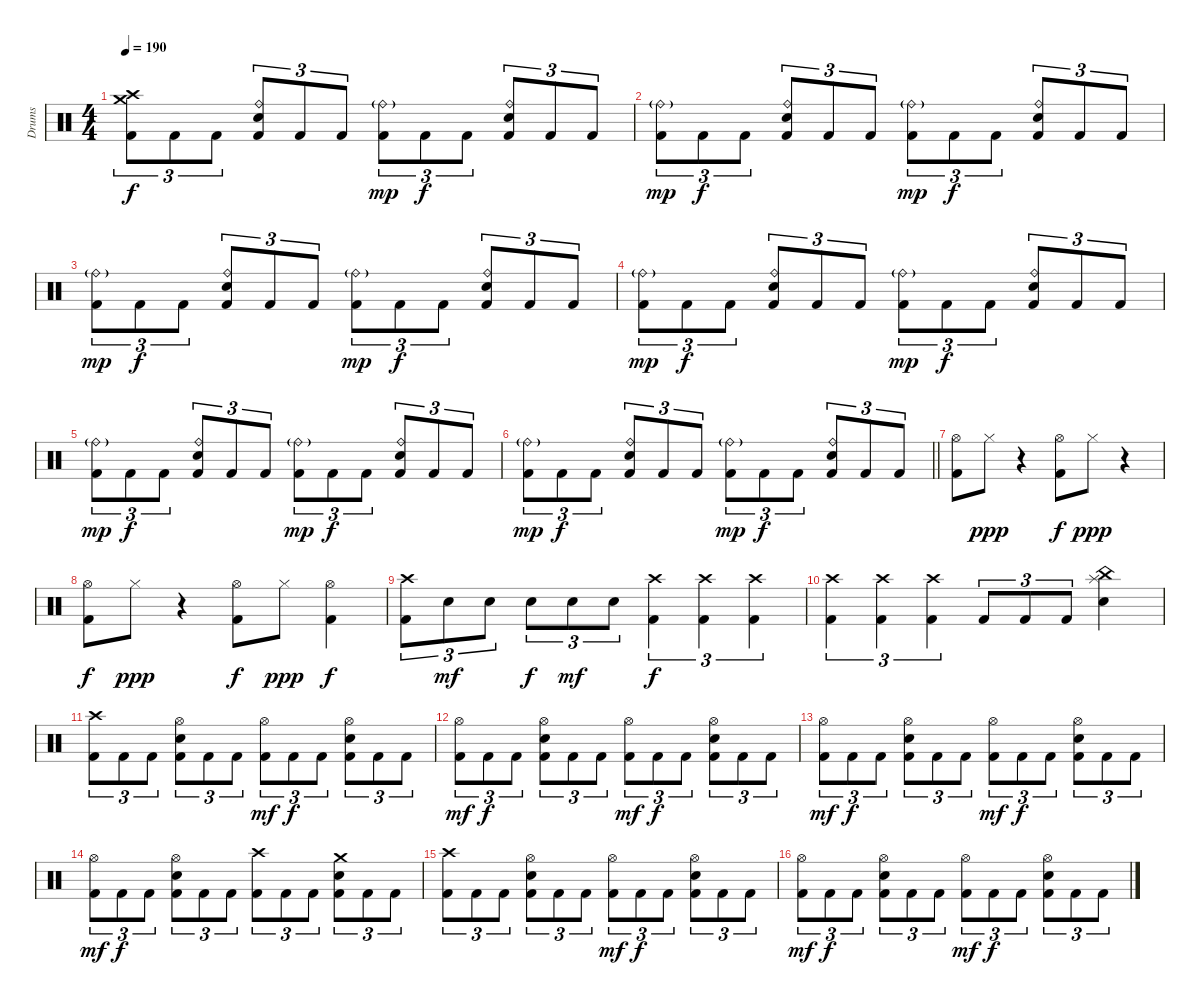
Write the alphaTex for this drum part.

\track ("Drums" "Drums") {instrument percussion}
\staff {score}
\articulation defaults
\ts (4 4)
\tempo 190
\clef neutral
\ks c
("Crash high (hit)" "Crash medium (hit)" "Kick (hit) 2").8{tu (3 2) dy f} "Kick (hit) 2".8{tu (3 2)} "Kick (hit) 2".8{tu (3 2)} ("Ride (bell)" "Electric Snare (hit)" "Kick (hit) 2").8{tu (3 2)} "Kick (hit) 2".8{tu (3 2)} "Kick (hit) 2".8{tu (3 2)} ("Ride (bell)"{g} "Kick (hit) 2").8{tu (3 2) dy mp} "Kick (hit) 2".8{tu (3 2) dy f} "Kick (hit) 2".8{tu (3 2)} ("Ride (bell)" "Electric Snare (hit)" "Kick (hit) 2").8{tu (3 2)} "Kick (hit) 2".8{tu (3 2)} "Kick (hit) 2".8{tu (3 2)} |
("Ride (bell)"{g} "Kick (hit) 2").8{tu (3 2) dy mp} "Kick (hit) 2".8{tu (3 2) dy f} "Kick (hit) 2".8{tu (3 2)} ("Ride (bell)" "Electric Snare (hit)" "Kick (hit) 2").8{tu (3 2)} "Kick (hit) 2".8{tu (3 2)} "Kick (hit) 2".8{tu (3 2)} ("Ride (bell)"{g} "Kick (hit) 2").8{tu (3 2) dy mp} "Kick (hit) 2".8{tu (3 2) dy f} "Kick (hit) 2".8{tu (3 2)} ("Ride (bell)" "Electric Snare (hit)" "Kick (hit) 2").8{tu (3 2)} "Kick (hit) 2".8{tu (3 2)} "Kick (hit) 2".8{tu (3 2)} |
("Ride (bell)"{g} "Kick (hit) 2").8{tu (3 2) dy mp} "Kick (hit) 2".8{tu (3 2) dy f} "Kick (hit) 2".8{tu (3 2)} ("Ride (bell)" "Electric Snare (hit)" "Kick (hit) 2").8{tu (3 2)} "Kick (hit) 2".8{tu (3 2)} "Kick (hit) 2".8{tu (3 2)} ("Ride (bell)"{g} "Kick (hit) 2").8{tu (3 2) dy mp} "Kick (hit) 2".8{tu (3 2) dy f} "Kick (hit) 2".8{tu (3 2)} ("Ride (bell)" "Electric Snare (hit)" "Kick (hit) 2").8{tu (3 2)} "Kick (hit) 2".8{tu (3 2)} "Kick (hit) 2".8{tu (3 2)} |
("Ride (bell)"{g} "Kick (hit) 2").8{tu (3 2) dy mp} "Kick (hit) 2".8{tu (3 2) dy f} "Kick (hit) 2".8{tu (3 2)} ("Ride (bell)" "Electric Snare (hit)" "Kick (hit) 2").8{tu (3 2)} "Kick (hit) 2".8{tu (3 2)} "Kick (hit) 2".8{tu (3 2)} ("Ride (bell)"{g} "Kick (hit) 2").8{tu (3 2) dy mp} "Kick (hit) 2".8{tu (3 2) dy f} "Kick (hit) 2".8{tu (3 2)} ("Ride (bell)" "Electric Snare (hit)" "Kick (hit) 2").8{tu (3 2)} "Kick (hit) 2".8{tu (3 2)} "Kick (hit) 2".8{tu (3 2)} |
("Ride (bell)"{g} "Kick (hit) 2").8{tu (3 2) dy mp} "Kick (hit) 2".8{tu (3 2) dy f} "Kick (hit) 2".8{tu (3 2)} ("Ride (bell)" "Electric Snare (hit)" "Kick (hit) 2").8{tu (3 2)} "Kick (hit) 2".8{tu (3 2)} "Kick (hit) 2".8{tu (3 2)} ("Ride (bell)"{g} "Kick (hit) 2").8{tu (3 2) dy mp} "Kick (hit) 2".8{tu (3 2) dy f} "Kick (hit) 2".8{tu (3 2)} ("Ride (bell)" "Electric Snare (hit)" "Kick (hit) 2").8{tu (3 2)} "Kick (hit) 2".8{tu (3 2)} "Kick (hit) 2".8{tu (3 2)} |
\barLineRight lightlight
("Ride (bell)"{g} "Kick (hit) 2").8{tu (3 2) dy mp} "Kick (hit) 2".8{tu (3 2) dy f} "Kick (hit) 2".8{tu (3 2)} ("Ride (bell)" "Electric Snare (hit)" "Kick (hit) 2").8{tu (3 2)} "Kick (hit) 2".8{tu (3 2)} "Kick (hit) 2".8{tu (3 2)} ("Ride (bell)"{g} "Kick (hit) 2").8{tu (3 2) dy mp} "Kick (hit) 2".8{tu (3 2) dy f} "Kick (hit) 2".8{tu (3 2)} ("Ride (bell)" "Electric Snare (hit)" "Kick (hit) 2").8{tu (3 2)} "Kick (hit) 2".8{tu (3 2)} "Kick (hit) 2".8{tu (3 2)} |
("Hi-Hat (open)" "Kick (hit) 2").8 "Hi-Hat (closed)".8{dy ppp} r.4 ("Hi-Hat (open)" "Kick (hit) 2").8{dy f} "Hi-Hat (closed)".8{dy ppp} r.4 |
("Hi-Hat (open)" "Kick (hit) 2").8{dy f} "Hi-Hat (closed)".8{dy ppp} r.4 ("Hi-Hat (open)" "Kick (hit) 2").8{dy f} "Hi-Hat (closed)".8{dy ppp} ("Hi-Hat (open)" "Kick (hit) 2").4{dy f} |
("Crash high (hit)" "Kick (hit) 2").8{tu (3 2)} "Electric Snare (hit)".8{tu (3 2) dy mf} "Electric Snare (hit)".8{tu (3 2)} "Electric Snare (hit)".8{tu (3 2) dy f} "Electric Snare (hit)".8{tu (3 2) dy mf} "Electric Snare (hit)".8{tu (3 2)} ("Crash high (hit)" "Kick (hit) 2").4{tu (3 2) dy f} ("Crash high (hit)" "Kick (hit) 2").4{tu (3 2)} ("Crash high (hit)" "Kick (hit) 2").4{tu (3 2)} |
("Crash high (hit)" "Kick (hit) 2").4{tu (3 2)} ("Crash high (hit)" "Kick (hit) 2").4{tu (3 2)} ("Crash high (hit)" "Kick (hit) 2").4{tu (3 2)} "Kick (hit) 2".8{tu (3 2)} "Kick (hit) 2".8{tu (3 2)} "Kick (hit) 2".8{tu (3 2)} ("China (hit)" "Splash (hit)" "Electric Snare (hit)").4 |
("Crash high (hit)" "Kick (hit) 2").8{tu (3 2)} "Kick (hit) 2".8{tu (3 2)} "Kick (hit) 2".8{tu (3 2)} ("Hi-Hat (open)" "Electric Snare (hit)" "Kick (hit) 2").8{tu (3 2)} "Kick (hit) 2".8{tu (3 2)} "Kick (hit) 2".8{tu (3 2)} ("Hi-Hat (open)" "Kick (hit) 2").8{tu (3 2) dy mf} "Kick (hit) 2".8{tu (3 2) dy f} "Kick (hit) 2".8{tu (3 2)} ("Hi-Hat (open)" "Electric Snare (hit)" "Kick (hit) 2").8{tu (3 2)} "Kick (hit) 2".8{tu (3 2)} "Kick (hit) 2".8{tu (3 2)} |
("Hi-Hat (open)" "Kick (hit) 2").8{tu (3 2) dy mf} "Kick (hit) 2".8{tu (3 2) dy f} "Kick (hit) 2".8{tu (3 2)} ("Hi-Hat (open)" "Electric Snare (hit)" "Kick (hit) 2").8{tu (3 2)} "Kick (hit) 2".8{tu (3 2)} "Kick (hit) 2".8{tu (3 2)} ("Hi-Hat (open)" "Kick (hit) 2").8{tu (3 2) dy mf} "Kick (hit) 2".8{tu (3 2) dy f} "Kick (hit) 2".8{tu (3 2)} ("Hi-Hat (open)" "Electric Snare (hit)" "Kick (hit) 2").8{tu (3 2)} "Kick (hit) 2".8{tu (3 2)} "Kick (hit) 2".8{tu (3 2)} |
("Hi-Hat (open)" "Kick (hit) 2").8{tu (3 2) dy mf} "Kick (hit) 2".8{tu (3 2) dy f} "Kick (hit) 2".8{tu (3 2)} ("Hi-Hat (open)" "Electric Snare (hit)" "Kick (hit) 2").8{tu (3 2)} "Kick (hit) 2".8{tu (3 2)} "Kick (hit) 2".8{tu (3 2)} ("Hi-Hat (open)" "Kick (hit) 2").8{tu (3 2) dy mf} "Kick (hit) 2".8{tu (3 2) dy f} "Kick (hit) 2".8{tu (3 2)} ("Hi-Hat (open)" "Electric Snare (hit)" "Kick (hit) 2").8{tu (3 2)} "Kick (hit) 2".8{tu (3 2)} "Kick (hit) 2".8{tu (3 2)} |
("Hi-Hat (open)" "Kick (hit) 2").8{tu (3 2) dy mf} "Kick (hit) 2".8{tu (3 2) dy f} "Kick (hit) 2".8{tu (3 2)} ("Hi-Hat (open)" "Electric Snare (hit)" "Kick (hit) 2").8{tu (3 2)} "Kick (hit) 2".8{tu (3 2)} "Kick (hit) 2".8{tu (3 2)} ("Crash high (hit)" "Kick (hit) 2").8{tu (3 2)} "Kick (hit) 2".8{tu (3 2)} "Kick (hit) 2".8{tu (3 2)} ("Crash medium (hit)" "Electric Snare (hit)" "Kick (hit) 2").8{tu (3 2)} "Kick (hit) 2".8{tu (3 2)} "Kick (hit) 2".8{tu (3 2)} |
("Crash high (hit)" "Kick (hit) 2").8{tu (3 2)} "Kick (hit) 2".8{tu (3 2)} "Kick (hit) 2".8{tu (3 2)} ("Hi-Hat (open)" "Electric Snare (hit)" "Kick (hit) 2").8{tu (3 2)} "Kick (hit) 2".8{tu (3 2)} "Kick (hit) 2".8{tu (3 2)} ("Hi-Hat (open)" "Kick (hit) 2").8{tu (3 2) dy mf} "Kick (hit) 2".8{tu (3 2) dy f} "Kick (hit) 2".8{tu (3 2)} ("Hi-Hat (open)" "Electric Snare (hit)" "Kick (hit) 2").8{tu (3 2)} "Kick (hit) 2".8{tu (3 2)} "Kick (hit) 2".8{tu (3 2)} |
("Hi-Hat (open)" "Kick (hit) 2").8{tu (3 2) dy mf} "Kick (hit) 2".8{tu (3 2) dy f} "Kick (hit) 2".8{tu (3 2)} ("Hi-Hat (open)" "Electric Snare (hit)" "Kick (hit) 2").8{tu (3 2)} "Kick (hit) 2".8{tu (3 2)} "Kick (hit) 2".8{tu (3 2)} ("Hi-Hat (open)" "Kick (hit) 2").8{tu (3 2) dy mf} "Kick (hit) 2".8{tu (3 2) dy f} "Kick (hit) 2".8{tu (3 2)} ("Hi-Hat (open)" "Electric Snare (hit)" "Kick (hit) 2").8{tu (3 2)} "Kick (hit) 2".8{tu (3 2)} "Kick (hit) 2".8{tu (3 2)}
